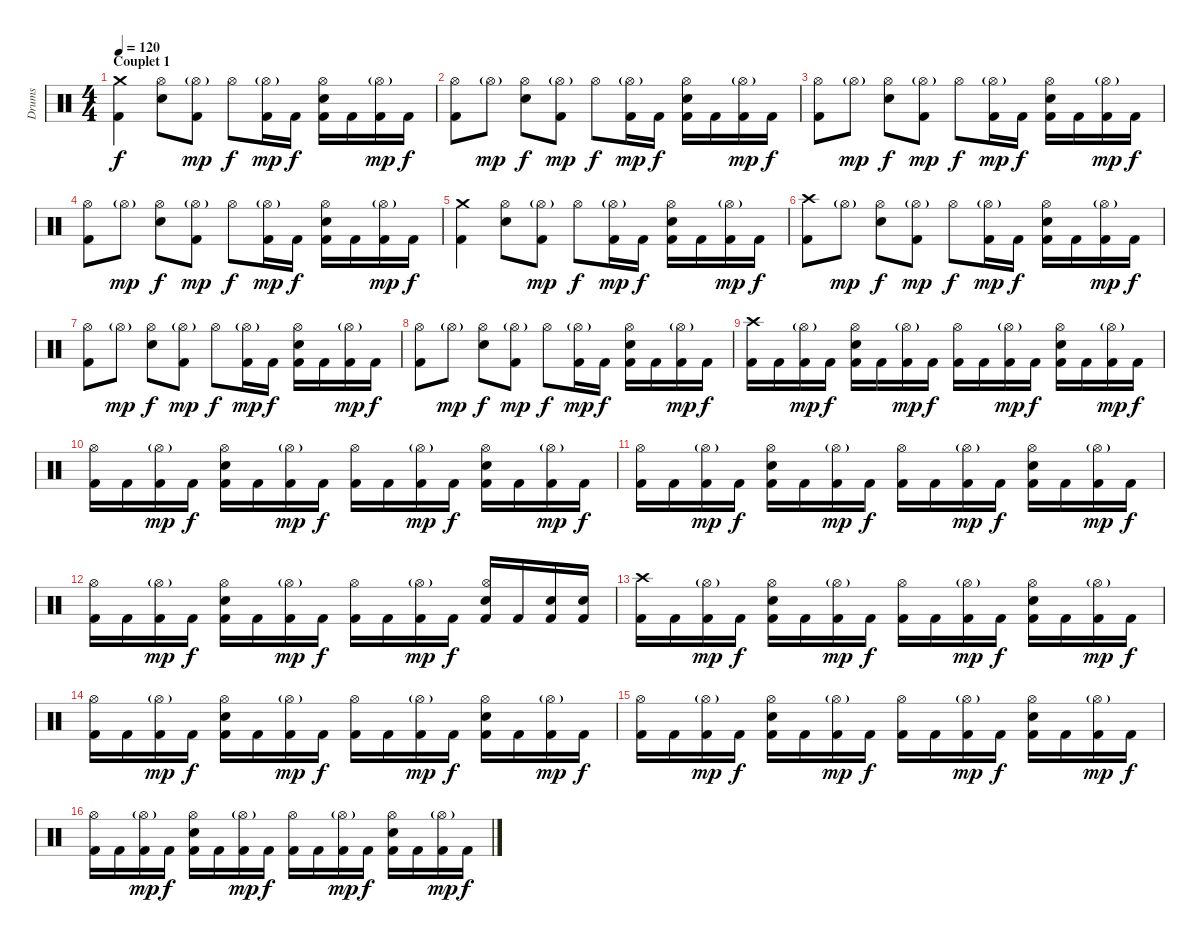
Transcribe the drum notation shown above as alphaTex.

\track ("Drums" "Drums") {instrument percussion}
\staff {score}
\articulation defaults
\ts (4 4)
\section ("" "Couplet 1")
\tempo 120
\clef neutral
\ks c
("Crash medium (hit)" "Kick (hit) 2").4{dy f} ("Hi-Hat (open)" "Snare (hit) 2").8 ("Hi-Hat (open)"{g} "Kick (hit) 2").8{dy mp} "Hi-Hat (open)".8{dy f} ("Hi-Hat (open)"{g} "Kick (hit) 2").16{dy mp} "Kick (hit) 2".16{dy f} ("Hi-Hat (open)" "Snare (hit) 2" "Kick (hit) 2").16 "Kick (hit) 2".16 ("Hi-Hat (open)"{g} "Kick (hit) 2").16{dy mp} "Kick (hit) 2".16{dy f} |
("Hi-Hat (open)" "Kick (hit) 2").8 "Hi-Hat (open)"{g}.8{dy mp} ("Hi-Hat (open)" "Snare (hit) 2").8{dy f} ("Hi-Hat (open)"{g} "Kick (hit) 2").8{dy mp} "Hi-Hat (open)".8{dy f} ("Hi-Hat (open)"{g} "Kick (hit) 2").16{dy mp} "Kick (hit) 2".16{dy f} ("Hi-Hat (open)" "Snare (hit) 2" "Kick (hit) 2").16 "Kick (hit) 2".16 ("Hi-Hat (open)"{g} "Kick (hit) 2").16{dy mp} "Kick (hit) 2".16{dy f} |
("Hi-Hat (open)" "Kick (hit) 2").8 "Hi-Hat (open)"{g}.8{dy mp} ("Hi-Hat (open)" "Snare (hit) 2").8{dy f} ("Hi-Hat (open)"{g} "Kick (hit) 2").8{dy mp} "Hi-Hat (open)".8{dy f} ("Hi-Hat (open)"{g} "Kick (hit) 2").16{dy mp} "Kick (hit) 2".16{dy f} ("Hi-Hat (open)" "Snare (hit) 2" "Kick (hit) 2").16 "Kick (hit) 2".16 ("Hi-Hat (open)"{g} "Kick (hit) 2").16{dy mp} "Kick (hit) 2".16{dy f} |
("Hi-Hat (open)" "Kick (hit) 2").8 "Hi-Hat (open)"{g}.8{dy mp} ("Hi-Hat (open)" "Snare (hit) 2").8{dy f} ("Hi-Hat (open)"{g} "Kick (hit) 2").8{dy mp} "Hi-Hat (open)".8{dy f} ("Hi-Hat (open)"{g} "Kick (hit) 2").16{dy mp} "Kick (hit) 2".16{dy f} ("Hi-Hat (open)" "Snare (hit) 2" "Kick (hit) 2").16 "Kick (hit) 2".16 ("Hi-Hat (open)"{g} "Kick (hit) 2").16{dy mp} "Kick (hit) 2".16{dy f} |
("Crash medium (hit)" "Kick (hit) 2").4 ("Hi-Hat (open)" "Snare (hit) 2").8 ("Hi-Hat (open)"{g} "Kick (hit) 2").8{dy mp} "Hi-Hat (open)".8{dy f} ("Hi-Hat (open)"{g} "Kick (hit) 2").16{dy mp} "Kick (hit) 2".16{dy f} ("Hi-Hat (open)" "Snare (hit) 2" "Kick (hit) 2").16 "Kick (hit) 2".16 ("Hi-Hat (open)"{g} "Kick (hit) 2").16{dy mp} "Kick (hit) 2".16{dy f} |
("Crash high (hit)" "Kick (hit) 2").8 "Hi-Hat (open)"{g}.8{dy mp} ("Hi-Hat (open)" "Snare (hit) 2").8{dy f} ("Hi-Hat (open)"{g} "Kick (hit) 2").8{dy mp} "Hi-Hat (open)".8{dy f} ("Hi-Hat (open)"{g} "Kick (hit) 2").16{dy mp} "Kick (hit) 2".16{dy f} ("Hi-Hat (open)" "Snare (hit) 2" "Kick (hit) 2").16 "Kick (hit) 2".16 ("Hi-Hat (open)"{g} "Kick (hit) 2").16{dy mp} "Kick (hit) 2".16{dy f} |
("Hi-Hat (open)" "Kick (hit) 2").8 "Hi-Hat (open)"{g}.8{dy mp} ("Hi-Hat (open)" "Snare (hit) 2").8{dy f} ("Hi-Hat (open)"{g} "Kick (hit) 2").8{dy mp} "Hi-Hat (open)".8{dy f} ("Hi-Hat (open)"{g} "Kick (hit) 2").16{dy mp} "Kick (hit) 2".16{dy f} ("Hi-Hat (open)" "Snare (hit) 2" "Kick (hit) 2").16 "Kick (hit) 2".16 ("Hi-Hat (open)"{g} "Kick (hit) 2").16{dy mp} "Kick (hit) 2".16{dy f} |
("Hi-Hat (open)" "Kick (hit) 2").8 "Hi-Hat (open)"{g}.8{dy mp} ("Hi-Hat (open)" "Snare (hit) 2").8{dy f} ("Hi-Hat (open)"{g} "Kick (hit) 2").8{dy mp} "Hi-Hat (open)".8{dy f} ("Hi-Hat (open)"{g} "Kick (hit) 2").16{dy mp} "Kick (hit) 2".16{dy f} ("Hi-Hat (open)" "Snare (hit) 2" "Kick (hit) 2").16 "Kick (hit) 2".16 ("Hi-Hat (open)"{g} "Kick (hit) 2").16{dy mp} "Kick (hit) 2".16{dy f} |
("Crash high (hit)" "Kick (hit) 2").16 "Kick (hit) 2".16 ("Hi-Hat (open)"{g} "Kick (hit) 2").16{dy mp} "Kick (hit) 2".16{dy f} ("Hi-Hat (open)" "Snare (hit) 2" "Kick (hit) 2").16 "Kick (hit) 2".16 ("Hi-Hat (open)"{g} "Kick (hit) 2").16{dy mp} "Kick (hit) 2".16{dy f} ("Hi-Hat (open)" "Kick (hit) 2").16 "Kick (hit) 2".16 ("Hi-Hat (open)"{g} "Kick (hit) 2").16{dy mp} "Kick (hit) 2".16{dy f} ("Hi-Hat (open)" "Snare (hit) 2" "Kick (hit) 2").16 "Kick (hit) 2".16 ("Hi-Hat (open)"{g} "Kick (hit) 2").16{dy mp} "Kick (hit) 2".16{dy f} |
("Hi-Hat (open)" "Kick (hit) 2").16 "Kick (hit) 2".16 ("Hi-Hat (open)"{g} "Kick (hit) 2").16{dy mp} "Kick (hit) 2".16{dy f} ("Hi-Hat (open)" "Snare (hit) 2" "Kick (hit) 2").16 "Kick (hit) 2".16 ("Hi-Hat (open)"{g} "Kick (hit) 2").16{dy mp} "Kick (hit) 2".16{dy f} ("Hi-Hat (open)" "Kick (hit) 2").16 "Kick (hit) 2".16 ("Hi-Hat (open)"{g} "Kick (hit) 2").16{dy mp} "Kick (hit) 2".16{dy f} ("Hi-Hat (open)" "Snare (hit) 2" "Kick (hit) 2").16 "Kick (hit) 2".16 ("Hi-Hat (open)"{g} "Kick (hit) 2").16{dy mp} "Kick (hit) 2".16{dy f} |
("Hi-Hat (open)" "Kick (hit) 2").16 "Kick (hit) 2".16 ("Hi-Hat (open)"{g} "Kick (hit) 2").16{dy mp} "Kick (hit) 2".16{dy f} ("Hi-Hat (open)" "Snare (hit) 2" "Kick (hit) 2").16 "Kick (hit) 2".16 ("Hi-Hat (open)"{g} "Kick (hit) 2").16{dy mp} "Kick (hit) 2".16{dy f} ("Hi-Hat (open)" "Kick (hit) 2").16 "Kick (hit) 2".16 ("Hi-Hat (open)"{g} "Kick (hit) 2").16{dy mp} "Kick (hit) 2".16{dy f} ("Hi-Hat (open)" "Snare (hit) 2" "Kick (hit) 2").16 "Kick (hit) 2".16 ("Hi-Hat (open)"{g} "Kick (hit) 2").16{dy mp} "Kick (hit) 2".16{dy f} |
("Hi-Hat (open)" "Kick (hit) 2").16 "Kick (hit) 2".16 ("Hi-Hat (open)"{g} "Kick (hit) 2").16{dy mp} "Kick (hit) 2".16{dy f} ("Hi-Hat (open)" "Snare (hit) 2" "Kick (hit) 2").16 "Kick (hit) 2".16 ("Hi-Hat (open)"{g} "Kick (hit) 2").16{dy mp} "Kick (hit) 2".16{dy f} ("Hi-Hat (open)" "Kick (hit) 2").16 "Kick (hit) 2".16 ("Hi-Hat (open)"{g} "Kick (hit) 2").16{dy mp} "Kick (hit) 2".16{dy f} ("Hi-Hat (open)" "Snare (hit) 2" "Kick (hit) 2").16 "Kick (hit) 2".16 ("Snare (hit) 2" "Kick (hit) 2").16 ("Snare (hit) 2" "Kick (hit) 2").16 |
("Crash high (hit)" "Kick (hit) 2").16 "Kick (hit) 2".16 ("Hi-Hat (open)"{g} "Kick (hit) 2").16{dy mp} "Kick (hit) 2".16{dy f} ("Hi-Hat (open)" "Snare (hit) 2" "Kick (hit) 2").16 "Kick (hit) 2".16 ("Hi-Hat (open)"{g} "Kick (hit) 2").16{dy mp} "Kick (hit) 2".16{dy f} ("Hi-Hat (open)" "Kick (hit) 2").16 "Kick (hit) 2".16 ("Hi-Hat (open)"{g} "Kick (hit) 2").16{dy mp} "Kick (hit) 2".16{dy f} ("Hi-Hat (open)" "Snare (hit) 2" "Kick (hit) 2").16 "Kick (hit) 2".16 ("Hi-Hat (open)"{g} "Kick (hit) 2").16{dy mp} "Kick (hit) 2".16{dy f} |
("Hi-Hat (open)" "Kick (hit) 2").16 "Kick (hit) 2".16 ("Hi-Hat (open)"{g} "Kick (hit) 2").16{dy mp} "Kick (hit) 2".16{dy f} ("Hi-Hat (open)" "Snare (hit) 2" "Kick (hit) 2").16 "Kick (hit) 2".16 ("Hi-Hat (open)"{g} "Kick (hit) 2").16{dy mp} "Kick (hit) 2".16{dy f} ("Hi-Hat (open)" "Kick (hit) 2").16 "Kick (hit) 2".16 ("Hi-Hat (open)"{g} "Kick (hit) 2").16{dy mp} "Kick (hit) 2".16{dy f} ("Hi-Hat (open)" "Snare (hit) 2" "Kick (hit) 2").16 "Kick (hit) 2".16 ("Hi-Hat (open)"{g} "Kick (hit) 2").16{dy mp} "Kick (hit) 2".16{dy f} |
("Hi-Hat (open)" "Kick (hit) 2").16 "Kick (hit) 2".16 ("Hi-Hat (open)"{g} "Kick (hit) 2").16{dy mp} "Kick (hit) 2".16{dy f} ("Hi-Hat (open)" "Snare (hit) 2" "Kick (hit) 2").16 "Kick (hit) 2".16 ("Hi-Hat (open)"{g} "Kick (hit) 2").16{dy mp} "Kick (hit) 2".16{dy f} ("Hi-Hat (open)" "Kick (hit) 2").16 "Kick (hit) 2".16 ("Hi-Hat (open)"{g} "Kick (hit) 2").16{dy mp} "Kick (hit) 2".16{dy f} ("Hi-Hat (open)" "Snare (hit) 2" "Kick (hit) 2").16 "Kick (hit) 2".16 ("Hi-Hat (open)"{g} "Kick (hit) 2").16{dy mp} "Kick (hit) 2".16{dy f} |
("Hi-Hat (open)" "Kick (hit) 2").16 "Kick (hit) 2".16 ("Hi-Hat (open)"{g} "Kick (hit) 2").16{dy mp} "Kick (hit) 2".16{dy f} ("Hi-Hat (open)" "Snare (hit) 2" "Kick (hit) 2").16 "Kick (hit) 2".16 ("Hi-Hat (open)"{g} "Kick (hit) 2").16{dy mp} "Kick (hit) 2".16{dy f} ("Hi-Hat (open)" "Kick (hit) 2").16 "Kick (hit) 2".16 ("Hi-Hat (open)"{g} "Kick (hit) 2").16{dy mp} "Kick (hit) 2".16{dy f} ("Hi-Hat (open)" "Snare (hit) 2" "Kick (hit) 2").16 "Kick (hit) 2".16 ("Hi-Hat (open)"{g} "Kick (hit) 2").16{dy mp} "Kick (hit) 2".16{dy f}
